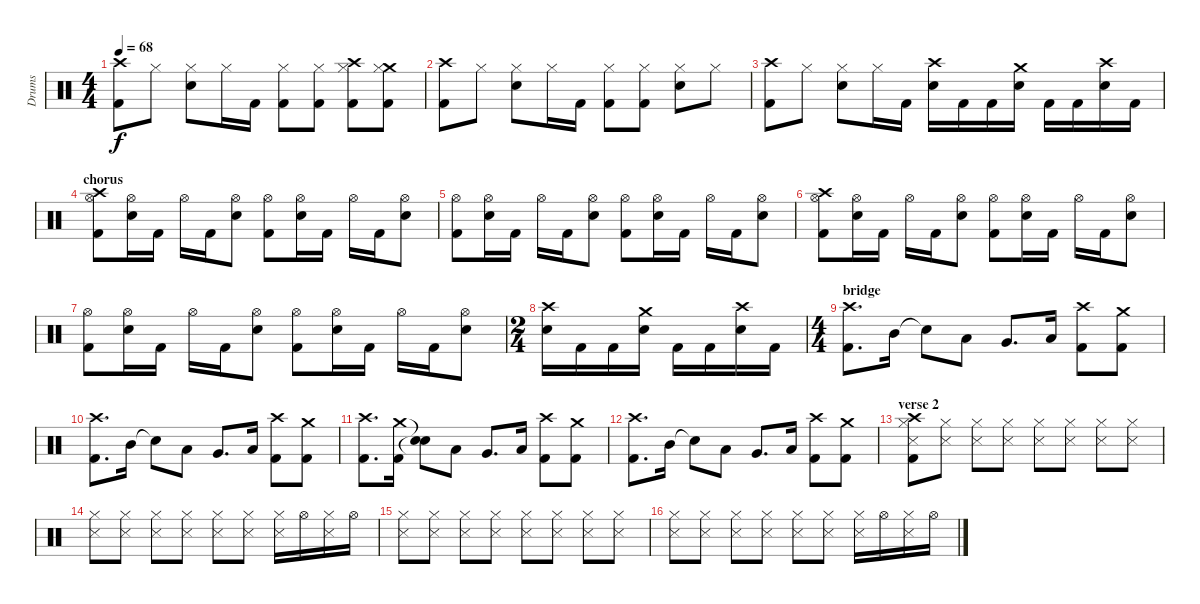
\track ("Drums" "Drums") {instrument percussion}
\staff {score}
\articulation defaults
\ts (4 4)
\tempo 68
\clef neutral
\ks c
("Crash high (hit)" "Kick (hit) 2").8{dy f} "Hi-Hat (closed)".8 ("Hi-Hat (closed)" "Snare (hit) 2").8 "Hi-Hat (closed)".16 "Kick (hit) 2".16 ("Hi-Hat (closed)" "Kick (hit) 2").8 ("Hi-Hat (closed)" "Kick (hit) 2").8 ("Crash high (hit)" "Hi-Hat (closed)" "Kick (hit) 2").8 ("Crash medium (hit)" "Hi-Hat (closed)" "Kick (hit) 2").8 |
("Crash high (hit)" "Kick (hit) 2").8 "Hi-Hat (closed)".8 ("Hi-Hat (closed)" "Snare (hit) 2").8 "Hi-Hat (closed)".16 "Kick (hit) 2".16 ("Hi-Hat (closed)" "Kick (hit) 2").8 ("Hi-Hat (closed)" "Kick (hit) 2").8 ("Hi-Hat (closed)" "Snare (hit) 2").8 "Hi-Hat (closed)".8 |
("Crash high (hit)" "Kick (hit) 2").8 "Hi-Hat (closed)".8 ("Hi-Hat (closed)" "Snare (hit) 2").8 "Hi-Hat (closed)".16 "Kick (hit) 2".16 ("Crash high (hit)" "Snare (hit) 2").16 "Kick (hit) 2".16 "Kick (hit) 2".16 ("Crash medium (hit)" "Snare (hit) 2").16 "Kick (hit) 2".16 "Kick (hit) 2".16 ("Crash high (hit)" "Snare (hit) 2").16 "Kick (hit) 2".16 |
\section ("" "chorus")
("Crash high (hit)" "Hi-Hat (open)" "Kick (hit) 2").8 ("Hi-Hat (open)" "Snare (hit) 2").16 "Kick (hit) 2".16 "Hi-Hat (open)".16 "Kick (hit) 2".16 ("Hi-Hat (open)" "Snare (hit) 2").8 ("Hi-Hat (open)" "Kick (hit) 2").8 ("Hi-Hat (open)" "Snare (hit) 2").16 "Kick (hit) 2".16 "Hi-Hat (open)".16 "Kick (hit) 2".16 ("Hi-Hat (open)" "Snare (hit) 2").8 |
("Hi-Hat (open)" "Kick (hit) 2").8 ("Hi-Hat (open)" "Snare (hit) 2").16 "Kick (hit) 2".16 "Hi-Hat (open)".16 "Kick (hit) 2".16 ("Hi-Hat (open)" "Snare (hit) 2").8 ("Hi-Hat (open)" "Kick (hit) 2").8 ("Hi-Hat (open)" "Snare (hit) 2").16 "Kick (hit) 2".16 "Hi-Hat (open)".16 "Kick (hit) 2".16 ("Hi-Hat (open)" "Snare (hit) 2").8 |
("Crash high (hit)" "Hi-Hat (open)" "Kick (hit) 2").8 ("Hi-Hat (open)" "Snare (hit) 2").16 "Kick (hit) 2".16 "Hi-Hat (open)".16 "Kick (hit) 2".16 ("Hi-Hat (open)" "Snare (hit) 2").8 ("Hi-Hat (open)" "Kick (hit) 2").8 ("Hi-Hat (open)" "Snare (hit) 2").16 "Kick (hit) 2".16 "Hi-Hat (open)".16 "Kick (hit) 2".16 ("Hi-Hat (open)" "Snare (hit) 2").8 |
("Hi-Hat (open)" "Kick (hit) 2").8 ("Hi-Hat (open)" "Snare (hit) 2").16 "Kick (hit) 2".16 "Hi-Hat (open)".16 "Kick (hit) 2".16 ("Hi-Hat (open)" "Snare (hit) 2").8 ("Hi-Hat (open)" "Kick (hit) 2").8 ("Hi-Hat (open)" "Snare (hit) 2").16 "Kick (hit) 2".16 "Hi-Hat (open)".16 "Kick (hit) 2".16 ("Hi-Hat (open)" "Snare (hit) 2").8 |
\ts (2 4)
("Crash high (hit)" "Snare (hit) 2").16 "Kick (hit) 2".16 "Kick (hit) 2".16 ("Crash medium (hit)" "Snare (hit) 2").16 "Kick (hit) 2".16 "Kick (hit) 2".16 ("Crash high (hit)" "Snare (hit) 2").16 "Kick (hit) 2".16 |
\ts (4 4)
\section ("" "bridge")
("Crash high (hit)" "Kick (hit) 2").8{d} "Mid Tom (hit)".16 "Snare (hit)"{t}.8 "Low Tom (hit)".8 "Very Low Tom (hit)".8{d} "Low Floor Tom (hit)".16 ("Crash high (hit)" "Kick (hit) 2").8 ("Crash medium (hit)" "Kick (hit) 2").8 |
("Crash high (hit)" "Kick (hit) 2").8{d} "Mid Tom (hit)".16 "Snare (hit)"{t}.8 "Low Tom (hit)".8 "Very Low Tom (hit)".8{d} "Low Floor Tom (hit)".16 ("Crash high (hit)" "Kick (hit) 2").8 ("Crash medium (hit)" "Kick (hit) 2").8 |
("Crash high (hit)" "Kick (hit) 2").8{d} ("Crash medium (hit)" "Kick (hit) 2").16 ("Snare (hit)"{t} "Snare (hit)"{t}).8 "Low Tom (hit)".8 "Very Low Tom (hit)".8{d} "Low Floor Tom (hit)".16 ("Crash high (hit)" "Kick (hit) 2").8 ("Crash medium (hit)" "Kick (hit) 2").8 |
("Crash high (hit)" "Kick (hit) 2").8{d} "Mid Tom (hit)".16 "Snare (hit)"{t}.8 "Low Tom (hit)".8 "Very Low Tom (hit)".8{d} "Low Floor Tom (hit)".16 ("Crash high (hit)" "Kick (hit) 2").8 ("Crash medium (hit)" "Kick (hit) 2").8 |
\section ("" "verse 2")
("Crash high (hit)" "Snare (side stick) 3" "Hi-Hat (closed)" "Kick (hit) 2").8 ("Snare (side stick) 3" "Hi-Hat (closed)").8 ("Snare (side stick) 3" "Hi-Hat (closed)").8 ("Snare (side stick) 3" "Hi-Hat (closed)").8 ("Snare (side stick) 3" "Hi-Hat (closed)").8 ("Snare (side stick) 3" "Hi-Hat (closed)").8 ("Snare (side stick) 3" "Hi-Hat (closed)").8 ("Snare (side stick) 3" "Hi-Hat (closed)").8 |
("Snare (side stick) 3" "Hi-Hat (closed)").8 ("Snare (side stick) 3" "Hi-Hat (closed)").8 ("Snare (side stick) 3" "Hi-Hat (closed)").8 ("Snare (side stick) 3" "Hi-Hat (closed)").8 ("Snare (side stick) 3" "Hi-Hat (closed)").8 ("Snare (side stick) 3" "Hi-Hat (closed)").8 ("Snare (side stick) 3" "Hi-Hat (closed)").16 "Hi-Hat (open)".16 ("Snare (side stick) 3" "Hi-Hat (closed)").16 "Hi-Hat (open)".16 |
("Snare (side stick) 3" "Hi-Hat (closed)").8 ("Snare (side stick) 3" "Hi-Hat (closed)").8 ("Snare (side stick) 3" "Hi-Hat (closed)").8 ("Snare (side stick) 3" "Hi-Hat (closed)").8 ("Snare (side stick) 3" "Hi-Hat (closed)").8 ("Snare (side stick) 3" "Hi-Hat (closed)").8 ("Snare (side stick) 3" "Hi-Hat (closed)").8 ("Snare (side stick) 3" "Hi-Hat (closed)").8 |
("Snare (side stick) 3" "Hi-Hat (closed)").8 ("Snare (side stick) 3" "Hi-Hat (closed)").8 ("Snare (side stick) 3" "Hi-Hat (closed)").8 ("Snare (side stick) 3" "Hi-Hat (closed)").8 ("Snare (side stick) 3" "Hi-Hat (closed)").8 ("Snare (side stick) 3" "Hi-Hat (closed)").8 ("Snare (side stick) 3" "Hi-Hat (closed)").16 "Hi-Hat (open)".16 ("Snare (side stick) 3" "Hi-Hat (closed)").16 "Hi-Hat (open)".16
